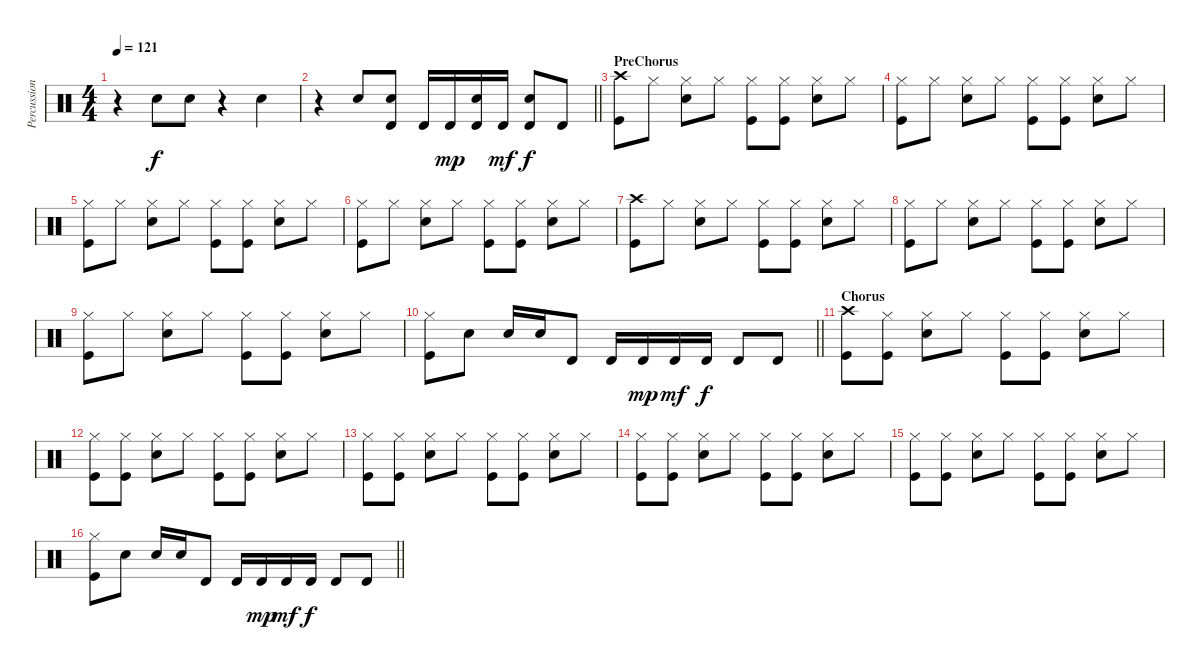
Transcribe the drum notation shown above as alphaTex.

\track ("Percussion" "Percussion") {instrument percussion}
\staff {score}
\articulation defaults
\ts (4 4)
\tempo 121
\clef neutral
\ks c
r.4{dy f} "Hand Clap (hit)".8 "Hand Clap (hit)".8 r.4 "Hand Clap (hit)".4 |
\barLineRight lightlight
r.4 "Hand Clap (hit)".8 ("Hand Clap (hit)" "Timbale high (hit)").8 "Timbale high (hit)".16 "Timbale high (hit)".16{dy mp} ("Hand Clap (hit)" "Timbale high (hit)").16 "Timbale high (hit)".16{dy mf} ("Hand Clap (hit)" "Timbale high (hit)").8{dy f} "Timbale high (hit)".8 |
\section ("" "PreChorus")
("Crash high (hit)" "Kick (hit)").8 "Hi-Hat (closed)".8 ("Hi-Hat (closed)" "Snare (hit) 2").8 "Hi-Hat (closed)".8 ("Hi-Hat (closed)" "Kick (hit)").8 ("Hi-Hat (closed)" "Kick (hit)").8 ("Hi-Hat (closed)" "Snare (hit) 2").8 "Hi-Hat (closed)".8 |
("Hi-Hat (closed)" "Kick (hit)").8 "Hi-Hat (closed)".8 ("Hi-Hat (closed)" "Snare (hit) 2").8 "Hi-Hat (closed)".8 ("Hi-Hat (closed)" "Kick (hit)").8 ("Hi-Hat (closed)" "Kick (hit)").8 ("Hi-Hat (closed)" "Snare (hit) 2").8 "Hi-Hat (closed)".8 |
("Hi-Hat (closed)" "Kick (hit)").8 "Hi-Hat (closed)".8 ("Hi-Hat (closed)" "Snare (hit) 2").8 "Hi-Hat (closed)".8 ("Hi-Hat (closed)" "Kick (hit)").8 ("Hi-Hat (closed)" "Kick (hit)").8 ("Hi-Hat (closed)" "Snare (hit) 2").8 "Hi-Hat (closed)".8 |
("Hi-Hat (closed)" "Kick (hit)").8 "Hi-Hat (closed)".8 ("Hi-Hat (closed)" "Snare (hit) 2").8 "Hi-Hat (closed)".8 ("Hi-Hat (closed)" "Kick (hit)").8 ("Hi-Hat (closed)" "Kick (hit)").8 ("Hi-Hat (closed)" "Snare (hit) 2").8 "Hi-Hat (closed)".8 |
("Crash high (hit)" "Kick (hit)").8 "Hi-Hat (closed)".8 ("Hi-Hat (closed)" "Snare (hit) 2").8 "Hi-Hat (closed)".8 ("Hi-Hat (closed)" "Kick (hit)").8 ("Hi-Hat (closed)" "Kick (hit)").8 ("Hi-Hat (closed)" "Snare (hit) 2").8 "Hi-Hat (closed)".8 |
("Hi-Hat (closed)" "Kick (hit)").8 "Hi-Hat (closed)".8 ("Hi-Hat (closed)" "Snare (hit) 2").8 "Hi-Hat (closed)".8 ("Hi-Hat (closed)" "Kick (hit)").8 ("Hi-Hat (closed)" "Kick (hit)").8 ("Hi-Hat (closed)" "Snare (hit) 2").8 "Hi-Hat (closed)".8 |
("Hi-Hat (closed)" "Kick (hit)").8 "Hi-Hat (closed)".8 ("Hi-Hat (closed)" "Snare (hit) 2").8 "Hi-Hat (closed)".8 ("Hi-Hat (closed)" "Kick (hit)").8 ("Hi-Hat (closed)" "Kick (hit)").8 ("Hi-Hat (closed)" "Snare (hit) 2").8 "Hi-Hat (closed)".8 |
\barLineRight lightlight
("Hi-Hat (closed)" "Kick (hit)").8 "Snare (hit) 2".8 "Snare (hit) 2".16 "Snare (hit) 2".16 "Timbale high (hit)".8 "Timbale high (hit)".16 "Timbale high (hit)".16{dy mp} "Timbale high (hit)".16{dy mf} "Timbale high (hit)".16{dy f} "Timbale high (hit)".8 "Timbale high (hit)".8 |
\section ("" "Chorus")
("Crash high (hit)" "Kick (hit)").8 ("Hi-Hat (closed)" "Kick (hit)").8 ("Hi-Hat (closed)" "Snare (hit) 2").8 "Hi-Hat (closed)".8 ("Hi-Hat (closed)" "Kick (hit)").8 ("Hi-Hat (closed)" "Kick (hit)").8 ("Hi-Hat (closed)" "Snare (hit) 2").8 "Hi-Hat (closed)".8 |
("Hi-Hat (closed)" "Kick (hit)").8 ("Hi-Hat (closed)" "Kick (hit)").8 ("Hi-Hat (closed)" "Snare (hit) 2").8 "Hi-Hat (closed)".8 ("Hi-Hat (closed)" "Kick (hit)").8 ("Hi-Hat (closed)" "Kick (hit)").8 ("Hi-Hat (closed)" "Snare (hit) 2").8 "Hi-Hat (closed)".8 |
("Hi-Hat (closed)" "Kick (hit)").8 ("Hi-Hat (closed)" "Kick (hit)").8 ("Hi-Hat (closed)" "Snare (hit) 2").8 "Hi-Hat (closed)".8 ("Hi-Hat (closed)" "Kick (hit)").8 ("Hi-Hat (closed)" "Kick (hit)").8 ("Hi-Hat (closed)" "Snare (hit) 2").8 "Hi-Hat (closed)".8 |
("Hi-Hat (closed)" "Kick (hit)").8 ("Hi-Hat (closed)" "Kick (hit)").8 ("Hi-Hat (closed)" "Snare (hit) 2").8 "Hi-Hat (closed)".8 ("Hi-Hat (closed)" "Kick (hit)").8 ("Hi-Hat (closed)" "Kick (hit)").8 ("Hi-Hat (closed)" "Snare (hit) 2").8 "Hi-Hat (closed)".8 |
("Hi-Hat (closed)" "Kick (hit)").8 ("Hi-Hat (closed)" "Kick (hit)").8 ("Hi-Hat (closed)" "Snare (hit) 2").8 "Hi-Hat (closed)".8 ("Hi-Hat (closed)" "Kick (hit)").8 ("Hi-Hat (closed)" "Kick (hit)").8 ("Hi-Hat (closed)" "Snare (hit) 2").8 "Hi-Hat (closed)".8 |
\barLineRight lightlight
("Hi-Hat (closed)" "Kick (hit)").8 "Snare (hit) 2".8 "Snare (hit) 2".16 "Snare (hit) 2".16 "Timbale high (hit)".8 "Timbale high (hit)".16 "Timbale high (hit)".16{dy mp} "Timbale high (hit)".16{dy mf} "Timbale high (hit)".16{dy f} "Timbale high (hit)".8 "Timbale high (hit)".8
